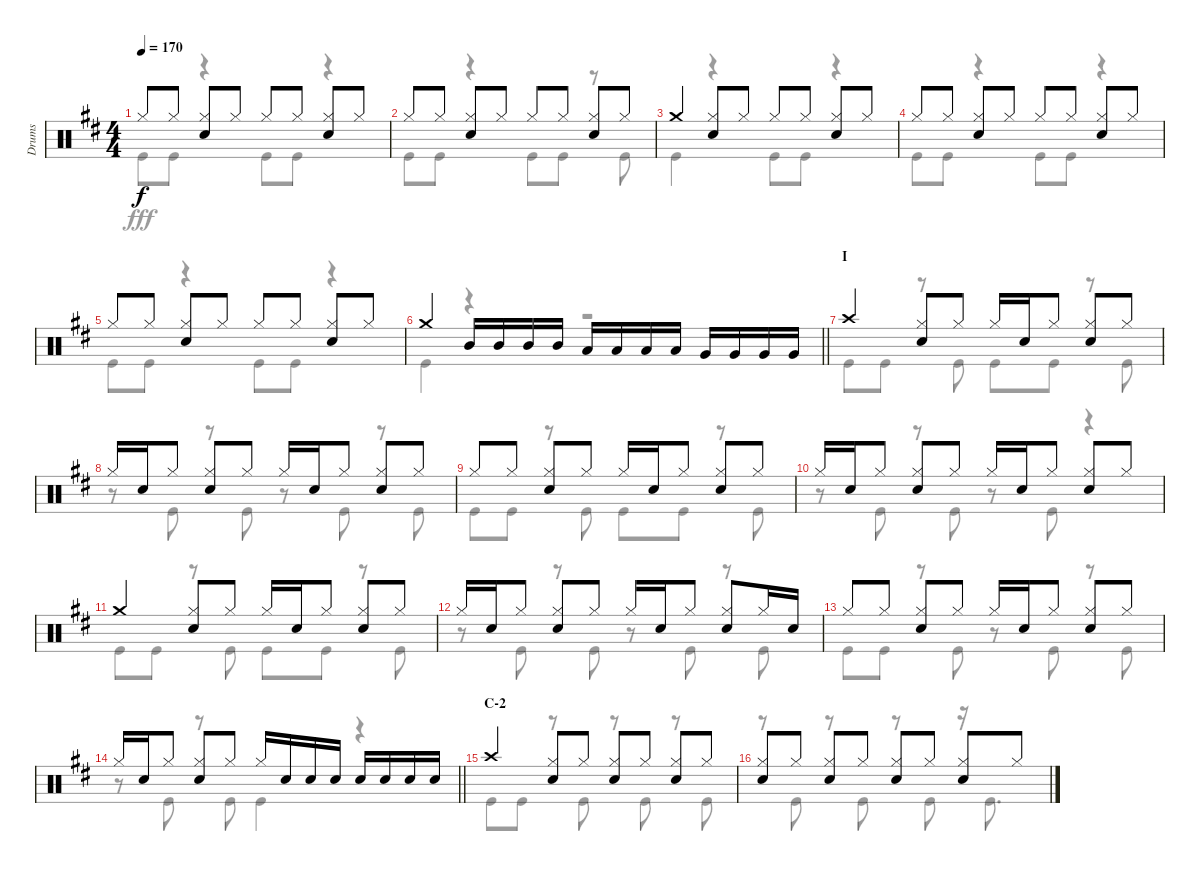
\track ("Drums" "Drums") {instrument percussion}
\staff {score}
\articulation defaults
\voice
\ts (4 4)
\tempo 170
\clef neutral
\ks d "Hi-Hat (closed)".8{dy f} "Hi-Hat (closed)".8
("Hi-Hat (closed)" "Snare (hit) 2").8 "Hi-Hat (closed)".8 "Hi-Hat (closed)".8 "Hi-Hat (closed)".8 ("Hi-Hat (closed)" "Snare (hit) 2").8 "Hi-Hat (closed)".8 |
"Hi-Hat (closed)".8 "Hi-Hat (closed)".8 ("Hi-Hat (closed)" "Snare (hit) 2").8 "Hi-Hat (closed)".8 "Hi-Hat (closed)".8 "Hi-Hat (closed)".8 ("Hi-Hat (closed)" "Snare (hit) 2").8 "Hi-Hat (closed)".8 |
"Crash medium (hit)".4 ("Hi-Hat (closed)" "Snare (hit) 2").8 "Hi-Hat (closed)".8 "Hi-Hat (closed)".8 "Hi-Hat (closed)".8 ("Hi-Hat (closed)" "Snare (hit) 2").8 "Hi-Hat (closed)".8 |
"Hi-Hat (closed)".8 "Hi-Hat (closed)".8 ("Hi-Hat (closed)" "Snare (hit) 2").8 "Hi-Hat (closed)".8 "Hi-Hat (closed)".8 "Hi-Hat (closed)".8 ("Hi-Hat (closed)" "Snare (hit) 2").8 "Hi-Hat (closed)".8 |
"Hi-Hat (closed)".8 "Hi-Hat (closed)".8 ("Hi-Hat (closed)" "Snare (hit) 2").8 "Hi-Hat (closed)".8 "Hi-Hat (closed)".8 "Hi-Hat (closed)".8 ("Hi-Hat (closed)" "Snare (hit) 2").8 "Hi-Hat (closed)".8 |
\barLineRight lightlight "Crash medium (hit)".4 "Mid Tom (hit)".16 "Mid Tom (hit)".16 "Mid Tom (hit)".16 "Mid Tom (hit)".16 "Low Tom (hit)".16 "Low Tom (hit)".16 "Low Tom (hit)".16 "Low Tom (hit)".16 "Very Low Tom (hit)".16 "Very Low Tom (hit)".16 "Very Low Tom (hit)".16 "Very Low Tom (hit)".16
|
\section ("" "I")
"Crash high (hit)".4 ("Hi-Hat (closed)" "Snare (hit) 2").8 "Hi-Hat (closed)".8 "Hi-Hat (closed)".16 "Snare (hit) 2".16 "Hi-Hat (closed)".8 ("Hi-Hat (closed)" "Snare (hit) 2").8 "Hi-Hat (closed)".8 |
"Hi-Hat (closed)".16 "Snare (hit) 2".16 "Hi-Hat (closed)".8 ("Hi-Hat (closed)" "Snare (hit) 2").8 "Hi-Hat (closed)".8 "Hi-Hat (closed)".16 "Snare (hit) 2".16 "Hi-Hat (closed)".8 ("Hi-Hat (closed)" "Snare (hit) 2").8 "Hi-Hat (closed)".8 |
"Hi-Hat (closed)".8 "Hi-Hat (closed)".8 ("Hi-Hat (closed)" "Snare (hit) 2").8 "Hi-Hat (closed)".8 "Hi-Hat (closed)".16 "Snare (hit) 2".16 "Hi-Hat (closed)".8 ("Hi-Hat (closed)" "Snare (hit) 2").8 "Hi-Hat (closed)".8 |
"Hi-Hat (closed)".16 "Snare (hit) 2".16 "Hi-Hat (closed)".8 ("Hi-Hat (closed)" "Snare (hit) 2").8 "Hi-Hat (closed)".8 "Hi-Hat (closed)".16 "Snare (hit) 2".16 "Hi-Hat (closed)".8 ("Hi-Hat (closed)" "Snare (hit) 2").8 "Hi-Hat (closed)".8 |
"Crash medium (hit)".4 ("Hi-Hat (closed)" "Snare (hit) 2").8 "Hi-Hat (closed)".8 "Hi-Hat (closed)".16 "Snare (hit) 2".16 "Hi-Hat (closed)".8 ("Hi-Hat (closed)" "Snare (hit) 2").8 "Hi-Hat (closed)".8 |
"Hi-Hat (closed)".16 "Snare (hit) 2".16 "Hi-Hat (closed)".8 ("Hi-Hat (closed)" "Snare (hit) 2").8 "Hi-Hat (closed)".8 "Hi-Hat (closed)".16 "Snare (hit) 2".16 "Hi-Hat (closed)".8 ("Hi-Hat (closed)" "Snare (hit) 2").8 "Hi-Hat (closed)".16 "Snare (hit) 2".16 |
"Hi-Hat (closed)".8 "Hi-Hat (closed)".8 ("Hi-Hat (closed)" "Snare (hit) 2").8 "Hi-Hat (closed)".8 "Hi-Hat (closed)".16 "Snare (hit) 2".16 "Hi-Hat (closed)".8 ("Hi-Hat (closed)" "Snare (hit) 2").8 "Hi-Hat (closed)".8 |
\barLineRight lightlight "Hi-Hat (closed)".16 "Snare (hit) 2".16 "Hi-Hat (closed)".8
("Hi-Hat (closed)" "Snare (hit) 2").8 "Hi-Hat (closed)".8 "Hi-Hat (closed)".16 "Snare (hit) 2".16 "Snare (hit) 2".16 "Snare (hit) 2".16 "Snare (hit) 2".16 "Snare (hit) 2".16 "Snare (hit) 2".16 "Snare (hit) 2".16 |
\section ("" "C-2")
"Crash high (hit)".4 ("Hi-Hat (closed)" "Snare (hit) 2").8 "Hi-Hat (closed)".8 ("Hi-Hat (closed)" "Snare (hit) 2").8 "Hi-Hat (closed)".8 ("Hi-Hat (closed)" "Snare (hit) 2").8 "Hi-Hat (closed)".8 |
("Hi-Hat (closed)" "Snare (hit) 2").8 "Hi-Hat (closed)".8 ("Hi-Hat (closed)" "Snare (hit) 2").8 "Hi-Hat (closed)".8 ("Hi-Hat (closed)" "Snare (hit) 2").8 "Hi-Hat (closed)".8 ("Hi-Hat (closed)" "Snare (hit) 2").8 "Hi-Hat (closed)".8
\voice
\clef neutral
\ottava regular
\simile none
\ks d "Kick (hit)".8{dy fff} "Kick (hit)".8
r.4 "Kick (hit)".8 "Kick (hit)".8 r.4 |
"Kick (hit)".8 "Kick (hit)".8 r.4 "Kick (hit)".8 "Kick (hit)".8 r.8 "Kick (hit)".8 |
"Kick (hit)".4 r.4 "Kick (hit)".8 "Kick (hit)".8 r.4 |
"Kick (hit)".8 "Kick (hit)".8 r.4 "Kick (hit)".8 "Kick (hit)".8 r.4 |
"Kick (hit)".8 "Kick (hit)".8 r.4 "Kick (hit)".8 "Kick (hit)".8 r.4 |
\barLineRight lightlight "Kick (hit)".4
r.4 r.2 |
"Kick (hit)".8 "Kick (hit)".8 r.8 "Kick (hit)".8 "Kick (hit)".8 "Kick (hit)".8 r.8 "Kick (hit)".8 |
r.8 "Kick (hit)".8 r.8 "Kick (hit)".8 r.8 "Kick (hit)".8 r.8 "Kick (hit)".8 |
"Kick (hit)".8 "Kick (hit)".8 r.8 "Kick (hit)".8 "Kick (hit)".8 "Kick (hit)".8 r.8 "Kick (hit)".8 |
r.8 "Kick (hit)".8 r.8 "Kick (hit)".8 r.8 "Kick (hit)".8 r.4 |
"Kick (hit)".8 "Kick (hit)".8 r.8 "Kick (hit)".8 "Kick (hit)".8 "Kick (hit)".8 r.8 "Kick (hit)".8 |
r.8 "Kick (hit)".8 r.8 "Kick (hit)".8 r.8 "Kick (hit)".8 r.8 "Kick (hit)".8 |
"Kick (hit)".8 "Kick (hit)".8 r.8 "Kick (hit)".8 r.8 "Kick (hit)".8 r.8 "Kick (hit)".8 |
\barLineRight lightlight
r.8 "Kick (hit)".8 r.8 "Kick (hit)".8 "Kick (hit)".4 r.4 |
"Kick (hit)".8 "Kick (hit)".8 r.8 "Kick (hit)".8 r.8 "Kick (hit)".8 r.8 "Kick (hit)".8 |
r.8 "Kick (hit)".8 r.8 "Kick (hit)".8 r.8 "Kick (hit)".8 r.16 "Kick (hit)".8{d}
